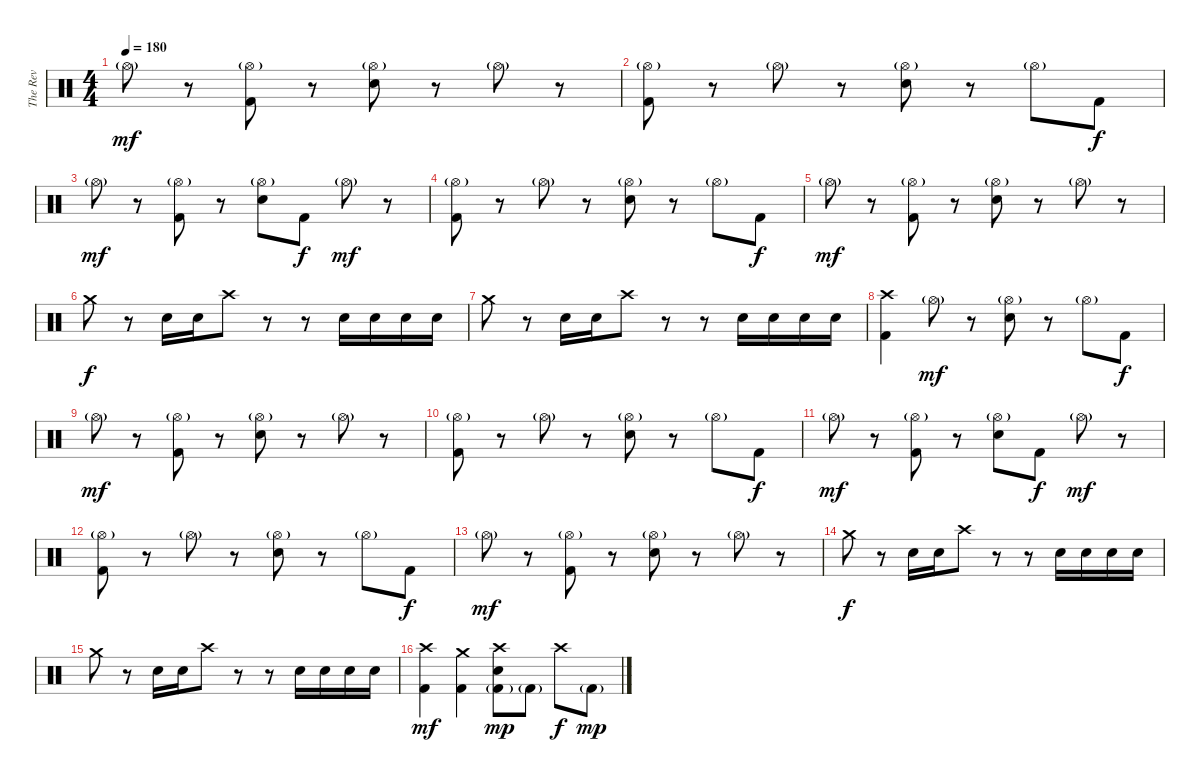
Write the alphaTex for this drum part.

\track ("The Rev" "The Rev") {instrument percussion}
\staff {score}
\articulation defaults
\ts (4 4)
\tempo 180
\clef neutral
\ks c "Hi-Hat (open)"{g}.8{dy mf}
r.8 ("Hi-Hat (open)"{g} "Kick (hit) 2").8 r.8 ("Hi-Hat (open)"{g} "Snare (hit) 2").8 r.8 "Hi-Hat (open)"{g}.8 r.8 |
("Hi-Hat (open)"{g} "Kick (hit) 2").8 r.8 "Hi-Hat (open)"{g}.8 r.8 ("Hi-Hat (open)"{g} "Snare (hit) 2").8 r.8 "Hi-Hat (open)"{g}.8 "Kick (hit) 2".8{dy f} |
"Hi-Hat (open)"{g}.8{dy mf} r.8 ("Hi-Hat (open)"{g} "Kick (hit) 2").8 r.8 ("Hi-Hat (open)"{g} "Snare (hit) 2").8 "Kick (hit) 2".8{dy f} "Hi-Hat (open)"{g}.8{dy mf} r.8 |
("Hi-Hat (open)"{g} "Kick (hit) 2").8 r.8 "Hi-Hat (open)"{g}.8 r.8 ("Hi-Hat (open)"{g} "Snare (hit) 2").8 r.8 "Hi-Hat (open)"{g}.8 "Kick (hit) 2".8{dy f} |
"Hi-Hat (open)"{g}.8{dy mf} r.8 ("Hi-Hat (open)"{g} "Kick (hit) 2").8 r.8 ("Hi-Hat (open)"{g} "Snare (hit) 2").8 r.8 "Hi-Hat (open)"{g}.8 r.8 |
"Crash medium (hit)".8{dy f} r.8 "Snare (hit) 2".16 "Snare (hit) 2".16 "Crash high (hit)".8 r.8 r.8 "Snare (hit) 2".16 "Snare (hit) 2".16 "Snare (hit) 2".16 "Snare (hit) 2".16 |
"Crash medium (hit)".8 r.8 "Snare (hit) 2".16 "Snare (hit) 2".16 "Crash high (hit)".8 r.8 r.8 "Snare (hit) 2".16 "Snare (hit) 2".16 "Snare (hit) 2".16 "Snare (hit) 2".16 |
("Crash high (hit)" "Kick (hit) 2").4 "Hi-Hat (open)"{g}.8{dy mf} r.8 ("Hi-Hat (open)"{g} "Snare (hit) 2").8 r.8 "Hi-Hat (open)"{g}.8 "Kick (hit) 2".8{dy f} |
"Hi-Hat (open)"{g}.8{dy mf} r.8 ("Hi-Hat (open)"{g} "Kick (hit) 2").8 r.8 ("Hi-Hat (open)"{g} "Snare (hit) 2").8 r.8 "Hi-Hat (open)"{g}.8 r.8 |
("Hi-Hat (open)"{g} "Kick (hit) 2").8 r.8 "Hi-Hat (open)"{g}.8 r.8 ("Hi-Hat (open)"{g} "Snare (hit) 2").8 r.8 "Hi-Hat (open)"{g}.8 "Kick (hit) 2".8{dy f} |
"Hi-Hat (open)"{g}.8{dy mf} r.8 ("Hi-Hat (open)"{g} "Kick (hit) 2").8 r.8 ("Hi-Hat (open)"{g} "Snare (hit) 2").8 "Kick (hit) 2".8{dy f} "Hi-Hat (open)"{g}.8{dy mf} r.8 |
("Hi-Hat (open)"{g} "Kick (hit) 2").8 r.8 "Hi-Hat (open)"{g}.8 r.8 ("Hi-Hat (open)"{g} "Snare (hit) 2").8 r.8 "Hi-Hat (open)"{g}.8 "Kick (hit) 2".8{dy f} |
"Hi-Hat (open)"{g}.8{dy mf} r.8 ("Hi-Hat (open)"{g} "Kick (hit) 2").8 r.8 ("Hi-Hat (open)"{g} "Snare (hit) 2").8 r.8 "Hi-Hat (open)"{g}.8 r.8 |
"Crash medium (hit)".8{dy f} r.8 "Snare (hit) 2".16 "Snare (hit) 2".16 "Crash high (hit)".8 r.8 r.8 "Snare (hit) 2".16 "Snare (hit) 2".16 "Snare (hit) 2".16 "Snare (hit) 2".16 |
"Crash medium (hit)".8 r.8 "Snare (hit) 2".16 "Snare (hit) 2".16 "Crash high (hit)".8 r.8 r.8 "Snare (hit) 2".16 "Snare (hit) 2".16 "Snare (hit) 2".16 "Snare (hit) 2".16 |
("Crash high (hit)" "Kick (hit) 2").4{dy mf} ("Crash medium (hit)" "Kick (hit) 2").4 ("Crash high (hit)" "Snare (hit) 2" "Kick (hit) 2"{g}).8{dy mp} "Kick (hit) 2"{g}.8 "Crash high (hit)".8{dy f} "Kick (hit) 2"{g}.8{dy mp}
